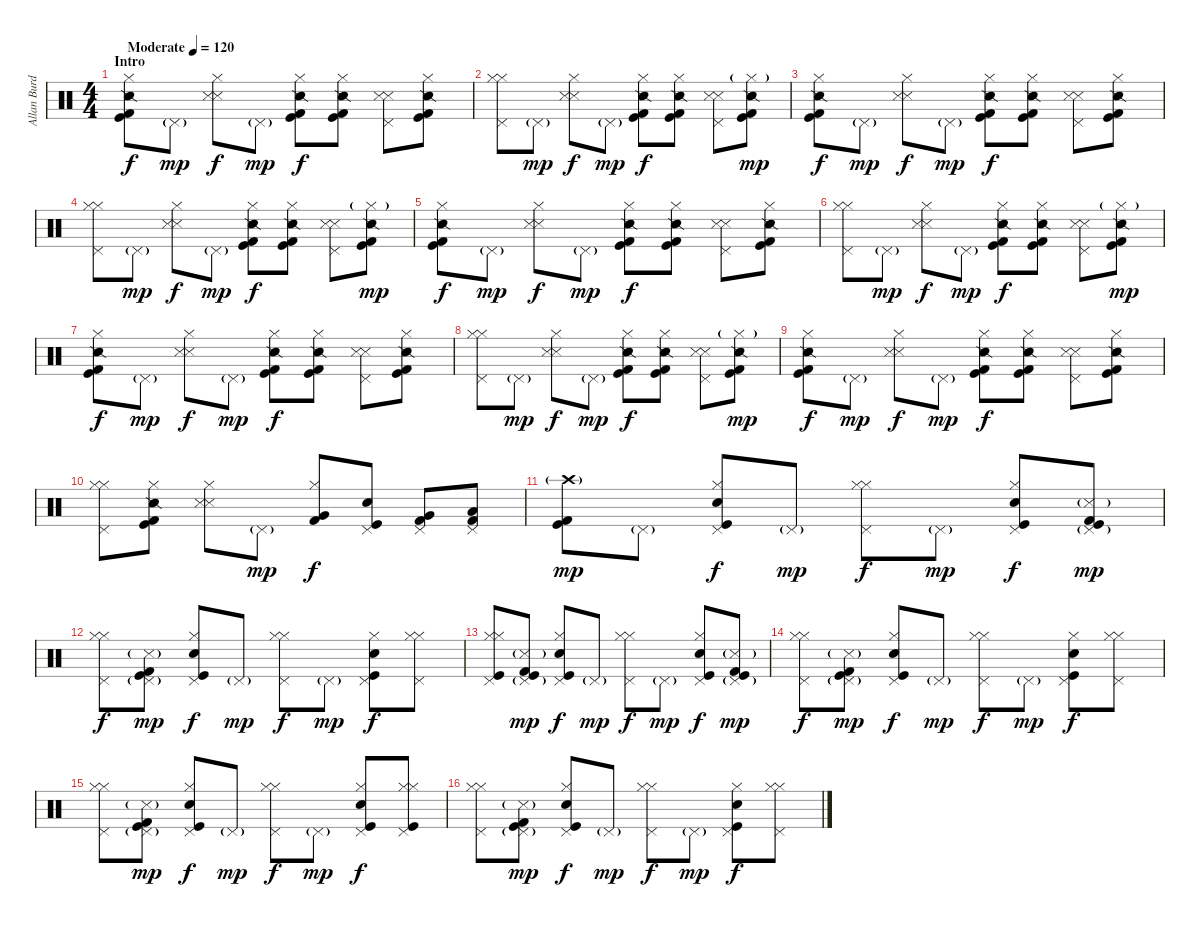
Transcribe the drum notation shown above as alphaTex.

\track ("Allan Burdeos(Drums)" "Allan Burd") {instrument percussion}
\staff {score}
\articulation defaults
\ts (4 4)
\section ("" "Intro")
\tempo (120 "Moderate")
\clef neutral
\ks c
("Kick (hit)" "Kick (hit) 2" "Snare (side stick) 2" "Hi-Hat (closed)").8{dy f} "Pedal Hi-Hat (hit)"{g}.8{dy mp} ("Metronome (hit)" "Snare (side stick) 3" "Hi-Hat (closed)").8{dy f} "Pedal Hi-Hat (hit)"{g}.8{dy mp} ("Kick (hit)" "Kick (hit) 2" "Snare (side stick) 2" "Hi-Hat (closed)").8{dy f} ("Kick (hit)" "Kick (hit) 2" "Snare (side stick) 2" "Hi-Hat (closed)").8 ("Metronome (hit)" "Snare (side stick) 3" "Pedal Hi-Hat (hit)").8 ("Kick (hit)" "Kick (hit) 2" "Snare (side stick) 2" "Hi-Hat (closed)").8 |
("Hi-Hat (closed)" "Hi-Hat (closed)" "Pedal Hi-Hat (hit)").8 "Pedal Hi-Hat (hit)"{g}.8{dy mp} ("Metronome (hit)" "Snare (side stick) 3" "Hi-Hat (closed)").8{dy f} "Pedal Hi-Hat (hit)"{g}.8{dy mp} ("Kick (hit)" "Kick (hit) 2" "Snare (side stick) 2" "Hi-Hat (closed)").8{dy f} ("Kick (hit)" "Kick (hit) 2" "Snare (side stick) 2" "Hi-Hat (closed)").8 ("Metronome (hit)" "Snare (side stick) 3" "Pedal Hi-Hat (hit)").8 ("Kick (hit)" "Kick (hit) 2" "Snare (side stick) 2" "Hi-Hat (closed)"{g}).8{dy mp} |
("Kick (hit)" "Kick (hit) 2" "Snare (side stick) 2" "Hi-Hat (closed)").8{dy f} "Pedal Hi-Hat (hit)"{g}.8{dy mp} ("Metronome (hit)" "Snare (side stick) 3" "Hi-Hat (closed)").8{dy f} "Pedal Hi-Hat (hit)"{g}.8{dy mp} ("Kick (hit)" "Kick (hit) 2" "Snare (side stick) 2" "Hi-Hat (closed)").8{dy f} ("Kick (hit)" "Kick (hit) 2" "Snare (side stick) 2" "Hi-Hat (closed)").8 ("Metronome (hit)" "Snare (side stick) 3" "Pedal Hi-Hat (hit)").8 ("Kick (hit)" "Kick (hit) 2" "Snare (side stick) 2" "Hi-Hat (closed)").8 |
("Hi-Hat (closed)" "Hi-Hat (closed)" "Pedal Hi-Hat (hit)").8 "Pedal Hi-Hat (hit)"{g}.8{dy mp} ("Metronome (hit)" "Snare (side stick) 3" "Hi-Hat (closed)").8{dy f} "Pedal Hi-Hat (hit)"{g}.8{dy mp} ("Kick (hit)" "Kick (hit) 2" "Snare (side stick) 2" "Hi-Hat (closed)").8{dy f} ("Kick (hit)" "Kick (hit) 2" "Snare (side stick) 2" "Hi-Hat (closed)").8 ("Metronome (hit)" "Snare (side stick) 3" "Pedal Hi-Hat (hit)").8 ("Kick (hit)" "Kick (hit) 2" "Snare (side stick) 2" "Hi-Hat (closed)"{g}).8{dy mp} |
("Kick (hit)" "Kick (hit) 2" "Snare (side stick) 2" "Hi-Hat (closed)").8{dy f} "Pedal Hi-Hat (hit)"{g}.8{dy mp} ("Metronome (hit)" "Snare (side stick) 3" "Hi-Hat (closed)").8{dy f} "Pedal Hi-Hat (hit)"{g}.8{dy mp} ("Kick (hit)" "Kick (hit) 2" "Snare (side stick) 2" "Hi-Hat (closed)").8{dy f} ("Kick (hit)" "Kick (hit) 2" "Snare (side stick) 2" "Hi-Hat (closed)").8 ("Metronome (hit)" "Snare (side stick) 3" "Pedal Hi-Hat (hit)").8 ("Kick (hit)" "Kick (hit) 2" "Snare (side stick) 2" "Hi-Hat (closed)").8 |
("Hi-Hat (closed)" "Hi-Hat (closed)" "Pedal Hi-Hat (hit)").8 "Pedal Hi-Hat (hit)"{g}.8{dy mp} ("Metronome (hit)" "Snare (side stick) 3" "Hi-Hat (closed)").8{dy f} "Pedal Hi-Hat (hit)"{g}.8{dy mp} ("Kick (hit)" "Kick (hit) 2" "Snare (side stick) 2" "Hi-Hat (closed)").8{dy f} ("Kick (hit)" "Kick (hit) 2" "Snare (side stick) 2" "Hi-Hat (closed)").8 ("Metronome (hit)" "Snare (side stick) 3" "Pedal Hi-Hat (hit)").8 ("Kick (hit)" "Kick (hit) 2" "Snare (side stick) 2" "Hi-Hat (closed)"{g}).8{dy mp} |
("Kick (hit)" "Kick (hit) 2" "Snare (side stick) 2" "Hi-Hat (closed)").8{dy f} "Pedal Hi-Hat (hit)"{g}.8{dy mp} ("Metronome (hit)" "Snare (side stick) 3" "Hi-Hat (closed)").8{dy f} "Pedal Hi-Hat (hit)"{g}.8{dy mp} ("Kick (hit)" "Kick (hit) 2" "Snare (side stick) 2" "Hi-Hat (closed)").8{dy f} ("Kick (hit)" "Kick (hit) 2" "Snare (side stick) 2" "Hi-Hat (closed)").8 ("Metronome (hit)" "Snare (side stick) 3" "Pedal Hi-Hat (hit)").8 ("Kick (hit)" "Kick (hit) 2" "Snare (side stick) 2" "Hi-Hat (closed)").8 |
("Hi-Hat (closed)" "Hi-Hat (closed)" "Pedal Hi-Hat (hit)").8 "Pedal Hi-Hat (hit)"{g}.8{dy mp} ("Metronome (hit)" "Snare (side stick) 3" "Hi-Hat (closed)").8{dy f} "Pedal Hi-Hat (hit)"{g}.8{dy mp} ("Kick (hit)" "Kick (hit) 2" "Snare (side stick) 2" "Hi-Hat (closed)").8{dy f} ("Kick (hit)" "Kick (hit) 2" "Snare (side stick) 2" "Hi-Hat (closed)").8 ("Metronome (hit)" "Snare (side stick) 3" "Pedal Hi-Hat (hit)").8 ("Kick (hit)" "Kick (hit) 2" "Snare (side stick) 2" "Hi-Hat (closed)"{g}).8{dy mp} |
("Kick (hit)" "Kick (hit) 2" "Snare (side stick) 2" "Hi-Hat (closed)").8{dy f} "Pedal Hi-Hat (hit)"{g}.8{dy mp} ("Metronome (hit)" "Snare (side stick) 3" "Hi-Hat (closed)").8{dy f} "Pedal Hi-Hat (hit)"{g}.8{dy mp} ("Kick (hit)" "Kick (hit) 2" "Snare (side stick) 2" "Hi-Hat (closed)").8{dy f} ("Kick (hit)" "Kick (hit) 2" "Snare (side stick) 2" "Hi-Hat (closed)").8 ("Metronome (hit)" "Snare (side stick) 3" "Pedal Hi-Hat (hit)").8 ("Kick (hit)" "Kick (hit) 2" "Snare (side stick) 2" "Hi-Hat (closed)").8 |
("Hi-Hat (closed)" "Hi-Hat (closed)" "Pedal Hi-Hat (hit)").8 ("Kick (hit)" "Kick (hit) 2" "Snare (side stick) 2" "Hi-Hat (closed)").8 ("Metronome (hit)" "Snare (side stick) 3" "Hi-Hat (closed)").8 "Pedal Hi-Hat (hit)"{g}.8{dy mp} ("Kick (hit) 2" "Very Low Tom (hit)" "Hi-Hat (closed)").8{dy f} ("Kick (hit)" "Electric Snare (hit)" "Pedal Hi-Hat (hit)").8 ("Kick (hit) 2" "Very Low Tom (hit)" "Pedal Hi-Hat (hit)").8 ("Kick (hit) 2" "Low Tom (hit)" "Pedal Hi-Hat (hit)").8 |
("Crash high (hit)"{g} "Kick (hit) 2" "Kick (hit)").8{dy mp} "Pedal Hi-Hat (hit)"{g}.8 ("Pedal Hi-Hat (hit)" "Hi-Hat (closed)" "Kick (hit)" "Electric Snare (hit)").8{dy f} "Pedal Hi-Hat (hit)"{g}.8{dy mp} ("Hi-Hat (closed)" "Hi-Hat (closed)" "Pedal Hi-Hat (hit)").8{dy f} "Pedal Hi-Hat (hit)"{g}.8{dy mp} ("Pedal Hi-Hat (hit)" "Hi-Hat (closed)" "Kick (hit)" "Electric Snare (hit)").8{dy f} ("Pedal Hi-Hat (hit)"{g} "Kick (hit) 2" "Kick (hit)" "Metronome (hit)"{g}).8{dy mp} |
("Hi-Hat (closed)" "Hi-Hat (closed)" "Pedal Hi-Hat (hit)").8{dy f} ("Pedal Hi-Hat (hit)"{g} "Kick (hit) 2" "Kick (hit)" "Metronome (hit)"{g}).8{dy mp} ("Pedal Hi-Hat (hit)" "Hi-Hat (closed)" "Kick (hit)" "Electric Snare (hit)").8{dy f} "Pedal Hi-Hat (hit)"{g}.8{dy mp} ("Hi-Hat (closed)" "Hi-Hat (closed)" "Pedal Hi-Hat (hit)").8{dy f} "Pedal Hi-Hat (hit)"{g}.8{dy mp} ("Pedal Hi-Hat (hit)" "Hi-Hat (closed)" "Kick (hit)" "Electric Snare (hit)").8{dy f} ("Hi-Hat (closed)" "Hi-Hat (closed)" "Pedal Hi-Hat (hit)").8 |
("Hi-Hat (closed)" "Hi-Hat (closed)" "Pedal Hi-Hat (hit)" "Kick (hit)").8 ("Pedal Hi-Hat (hit)"{g} "Kick (hit) 2" "Kick (hit)" "Metronome (hit)"{g}).8{dy mp} ("Pedal Hi-Hat (hit)" "Hi-Hat (closed)" "Kick (hit)" "Electric Snare (hit)").8{dy f} "Pedal Hi-Hat (hit)"{g}.8{dy mp} ("Hi-Hat (closed)" "Hi-Hat (closed)" "Pedal Hi-Hat (hit)").8{dy f} "Pedal Hi-Hat (hit)"{g}.8{dy mp} ("Pedal Hi-Hat (hit)" "Hi-Hat (closed)" "Kick (hit)" "Electric Snare (hit)").8{dy f} ("Pedal Hi-Hat (hit)"{g} "Kick (hit) 2" "Kick (hit)" "Metronome (hit)"{g}).8{dy mp} |
("Hi-Hat (closed)" "Hi-Hat (closed)" "Pedal Hi-Hat (hit)").8{dy f} ("Pedal Hi-Hat (hit)"{g} "Kick (hit) 2" "Kick (hit)" "Metronome (hit)"{g}).8{dy mp} ("Pedal Hi-Hat (hit)" "Hi-Hat (closed)" "Kick (hit)" "Electric Snare (hit)").8{dy f} "Pedal Hi-Hat (hit)"{g}.8{dy mp} ("Hi-Hat (closed)" "Hi-Hat (closed)" "Pedal Hi-Hat (hit)").8{dy f} "Pedal Hi-Hat (hit)"{g}.8{dy mp} ("Pedal Hi-Hat (hit)" "Hi-Hat (closed)" "Kick (hit)" "Electric Snare (hit)").8{dy f} ("Hi-Hat (closed)" "Hi-Hat (closed)" "Pedal Hi-Hat (hit)").8 |
("Hi-Hat (closed)" "Hi-Hat (closed)" "Pedal Hi-Hat (hit)").8 ("Pedal Hi-Hat (hit)"{g} "Kick (hit) 2" "Kick (hit)" "Metronome (hit)"{g}).8{dy mp} ("Pedal Hi-Hat (hit)" "Hi-Hat (closed)" "Kick (hit)" "Electric Snare (hit)").8{dy f} "Pedal Hi-Hat (hit)"{g}.8{dy mp} ("Hi-Hat (closed)" "Hi-Hat (closed)" "Pedal Hi-Hat (hit)").8{dy f} "Pedal Hi-Hat (hit)"{g}.8{dy mp} ("Pedal Hi-Hat (hit)" "Hi-Hat (closed)" "Kick (hit)" "Electric Snare (hit)").8{dy f} ("Hi-Hat (closed)" "Hi-Hat (closed)" "Pedal Hi-Hat (hit)" "Kick (hit)").8 |
("Hi-Hat (closed)" "Hi-Hat (closed)" "Pedal Hi-Hat (hit)").8 ("Pedal Hi-Hat (hit)"{g} "Kick (hit) 2" "Kick (hit)" "Metronome (hit)"{g}).8{dy mp} ("Pedal Hi-Hat (hit)" "Hi-Hat (closed)" "Kick (hit)" "Electric Snare (hit)").8{dy f} "Pedal Hi-Hat (hit)"{g}.8{dy mp} ("Hi-Hat (closed)" "Hi-Hat (closed)" "Pedal Hi-Hat (hit)").8{dy f} "Pedal Hi-Hat (hit)"{g}.8{dy mp} ("Pedal Hi-Hat (hit)" "Hi-Hat (closed)" "Kick (hit)" "Electric Snare (hit)").8{dy f} ("Hi-Hat (closed)" "Hi-Hat (closed)" "Pedal Hi-Hat (hit)").8
